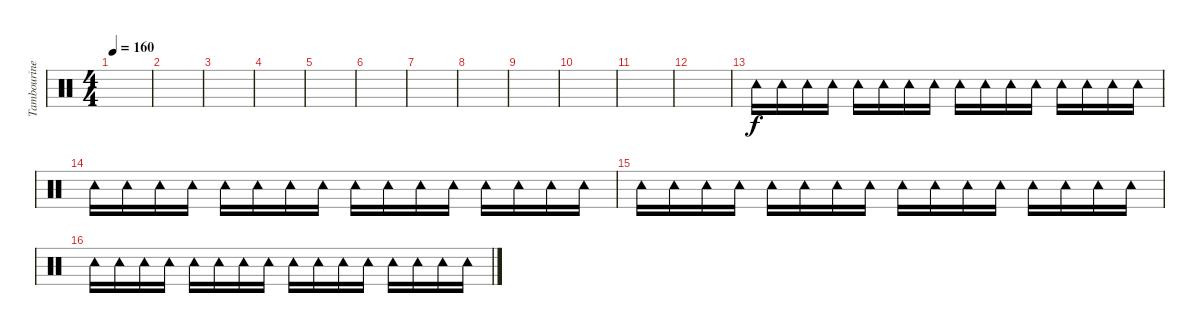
\track ("Tambourine" "Tambourine") {instrument percussion}
\staff {score}
\articulation defaults
\ts (4 4)
\tempo 160
\clef neutral
\ks c
|
|
|
|
|
|
|
|
|
|
|
|
"Tambourine (hit)".16 "Tambourine (hit)".16 "Tambourine (hit)".16 "Tambourine (hit)".16 "Tambourine (hit)".16 "Tambourine (hit)".16 "Tambourine (hit)".16 "Tambourine (hit)".16 "Tambourine (hit)".16 "Tambourine (hit)".16 "Tambourine (hit)".16 "Tambourine (hit)".16 "Tambourine (hit)".16 "Tambourine (hit)".16 "Tambourine (hit)".16 "Tambourine (hit)".16 |
"Tambourine (hit)".16 "Tambourine (hit)".16 "Tambourine (hit)".16 "Tambourine (hit)".16 "Tambourine (hit)".16 "Tambourine (hit)".16 "Tambourine (hit)".16 "Tambourine (hit)".16 "Tambourine (hit)".16 "Tambourine (hit)".16 "Tambourine (hit)".16 "Tambourine (hit)".16 "Tambourine (hit)".16 "Tambourine (hit)".16 "Tambourine (hit)".16 "Tambourine (hit)".16 |
"Tambourine (hit)".16 "Tambourine (hit)".16 "Tambourine (hit)".16 "Tambourine (hit)".16 "Tambourine (hit)".16 "Tambourine (hit)".16 "Tambourine (hit)".16 "Tambourine (hit)".16 "Tambourine (hit)".16 "Tambourine (hit)".16 "Tambourine (hit)".16 "Tambourine (hit)".16 "Tambourine (hit)".16 "Tambourine (hit)".16 "Tambourine (hit)".16 "Tambourine (hit)".16 |
"Tambourine (hit)".16 "Tambourine (hit)".16 "Tambourine (hit)".16 "Tambourine (hit)".16 "Tambourine (hit)".16 "Tambourine (hit)".16 "Tambourine (hit)".16 "Tambourine (hit)".16 "Tambourine (hit)".16 "Tambourine (hit)".16 "Tambourine (hit)".16 "Tambourine (hit)".16 "Tambourine (hit)".16 "Tambourine (hit)".16 "Tambourine (hit)".16 "Tambourine (hit)".16
